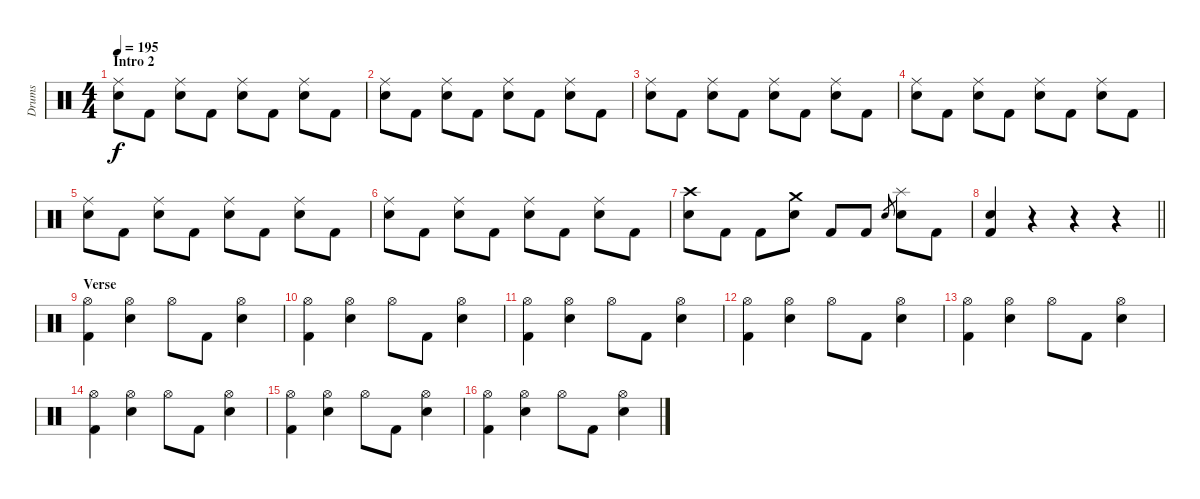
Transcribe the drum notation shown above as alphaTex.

\track ("Drums" "Drums") {instrument percussion}
\staff {score}
\articulation defaults
\ts (4 4)
\section ("" "Intro 2")
\tempo 195
\clef neutral
\ks c
("Ride (middle)" "Snare (hit) 2").8{dy f} "Kick (hit) 2".8 ("Ride (middle)" "Snare (hit) 2").8 "Kick (hit) 2".8 ("Ride (middle)" "Snare (hit) 2").8 "Kick (hit) 2".8 ("Ride (middle)" "Snare (hit) 2").8 "Kick (hit) 2".8 |
("Ride (middle)" "Snare (hit) 2").8 "Kick (hit) 2".8 ("Ride (middle)" "Snare (hit) 2").8 "Kick (hit) 2".8 ("Ride (middle)" "Snare (hit) 2").8 "Kick (hit) 2".8 ("Ride (middle)" "Snare (hit) 2").8 "Kick (hit) 2".8 |
("Ride (middle)" "Snare (hit) 2").8 "Kick (hit) 2".8 ("Ride (middle)" "Snare (hit) 2").8 "Kick (hit) 2".8 ("Ride (middle)" "Snare (hit) 2").8 "Kick (hit) 2".8 ("Ride (middle)" "Snare (hit) 2").8 "Kick (hit) 2".8 |
("Ride (middle)" "Snare (hit) 2").8 "Kick (hit) 2".8 ("Ride (middle)" "Snare (hit) 2").8 "Kick (hit) 2".8 ("Ride (middle)" "Snare (hit) 2").8 "Kick (hit) 2".8 ("Ride (middle)" "Snare (hit) 2").8 "Kick (hit) 2".8 |
("Ride (middle)" "Snare (hit) 2").8 "Kick (hit) 2".8 ("Ride (middle)" "Snare (hit) 2").8 "Kick (hit) 2".8 ("Ride (middle)" "Snare (hit) 2").8 "Kick (hit) 2".8 ("Ride (middle)" "Snare (hit) 2").8 "Kick (hit) 2".8 |
("Ride (middle)" "Snare (hit) 2").8 "Kick (hit) 2".8 ("Ride (middle)" "Snare (hit) 2").8 "Kick (hit) 2".8 ("Ride (middle)" "Snare (hit) 2").8 "Kick (hit) 2".8 ("Ride (middle)" "Snare (hit) 2").8 "Kick (hit) 2".8 |
("Crash high (hit)" "Snare (hit) 2").8 "Kick (hit) 2".8 "Kick (hit) 2".8 ("Crash medium (hit)" "Snare (hit) 2").8 "Kick (hit) 2".8 "Kick (hit) 2".8 "Snare (hit) 2".8{gr} ("Splash (hit)" "Snare (hit) 2").8 "Kick (hit) 2".8 |
\barLineRight lightlight
("Snare (hit) 2" "Kick (hit) 2").4 r.4 r.4 r.4 |
\section ("" "Verse")
("Hi-Hat (open)" "Kick (hit) 2").4 ("Hi-Hat (open)" "Snare (hit) 2").4 "Hi-Hat (open)".8 "Kick (hit) 2".8 ("Hi-Hat (open)" "Snare (hit) 2").4 |
("Hi-Hat (open)" "Kick (hit) 2").4 ("Hi-Hat (open)" "Snare (hit) 2").4 "Hi-Hat (open)".8 "Kick (hit) 2".8 ("Hi-Hat (open)" "Snare (hit) 2").4 |
("Hi-Hat (open)" "Kick (hit) 2").4 ("Hi-Hat (open)" "Snare (hit) 2").4 "Hi-Hat (open)".8 "Kick (hit) 2".8 ("Hi-Hat (open)" "Snare (hit) 2").4 |
("Hi-Hat (open)" "Kick (hit) 2").4 ("Hi-Hat (open)" "Snare (hit) 2").4 "Hi-Hat (open)".8 "Kick (hit) 2".8 ("Hi-Hat (open)" "Snare (hit) 2").4 |
("Hi-Hat (open)" "Kick (hit) 2").4 ("Hi-Hat (open)" "Snare (hit) 2").4 "Hi-Hat (open)".8 "Kick (hit) 2".8 ("Hi-Hat (open)" "Snare (hit) 2").4 |
("Hi-Hat (open)" "Kick (hit) 2").4 ("Hi-Hat (open)" "Snare (hit) 2").4 "Hi-Hat (open)".8 "Kick (hit) 2".8 ("Hi-Hat (open)" "Snare (hit) 2").4 |
("Hi-Hat (open)" "Kick (hit) 2").4 ("Hi-Hat (open)" "Snare (hit) 2").4 "Hi-Hat (open)".8 "Kick (hit) 2".8 ("Hi-Hat (open)" "Snare (hit) 2").4 |
("Hi-Hat (open)" "Kick (hit) 2").4 ("Hi-Hat (open)" "Snare (hit) 2").4 "Hi-Hat (open)".8 "Kick (hit) 2".8 ("Hi-Hat (open)" "Snare (hit) 2").4
